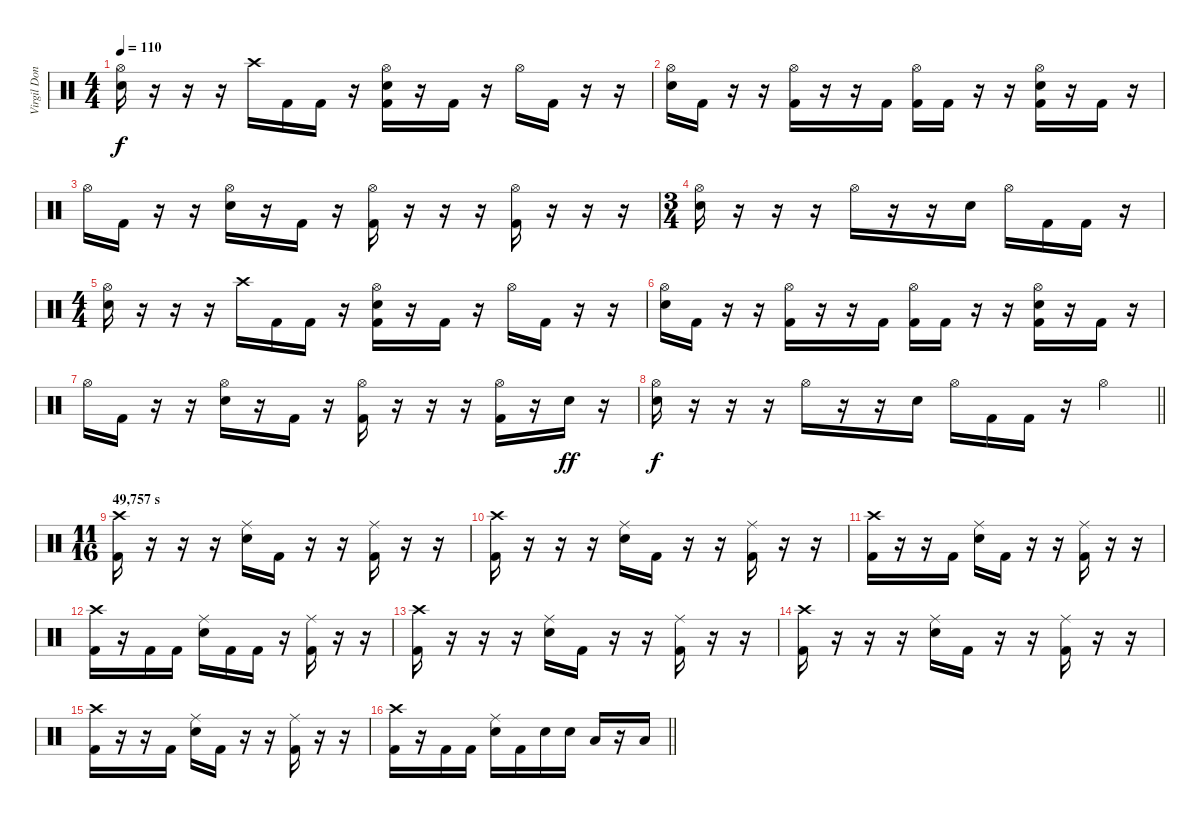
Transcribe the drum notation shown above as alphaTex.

\track ("Virgil Donati" "Virgil Don") {instrument percussion}
\staff {score}
\articulation defaults
\ts (4 4)
\tempo 110
\clef neutral
\ks c
("Hi-Hat (open)" "Electric Snare (hit)").16{dy f} r.16 r.16 r.16 "Crash high (hit)".16 "Kick (hit) 2".16 "Kick (hit) 2".16 r.16 ("Hi-Hat (open)" "Electric Snare (hit)" "Kick (hit) 2").16 r.16 "Kick (hit) 2".16 r.16 "Hi-Hat (open)".16 "Kick (hit) 2".16 r.16 r.16 |
("Hi-Hat (open)" "Electric Snare (hit)").16 "Kick (hit) 2".16 r.16 r.16 ("Hi-Hat (open)" "Kick (hit) 2").16 r.16 r.16 "Kick (hit) 2".16 ("Hi-Hat (open)" "Kick (hit) 2").16 "Kick (hit) 2".16 r.16 r.16 ("Hi-Hat (open)" "Electric Snare (hit)" "Kick (hit) 2").16 r.16 "Kick (hit) 2".16 r.16 |
"Hi-Hat (open)".16 "Kick (hit) 2".16 r.16 r.16 ("Hi-Hat (open)" "Electric Snare (hit)").16 r.16 "Kick (hit) 2".16 r.16 ("Hi-Hat (open)" "Kick (hit) 2").16 r.16 r.16 r.16 ("Hi-Hat (open)" "Kick (hit) 2").16 r.16 r.16 r.16 |
\ts (3 4)
("Hi-Hat (open)" "Electric Snare (hit)").16 r.16 r.16 r.16 "Hi-Hat (open)".16 r.16 r.16 "Electric Snare (hit)".16 "Hi-Hat (open)".16 "Kick (hit) 2".16 "Kick (hit) 2".16 r.16 |
\ts (4 4)
("Hi-Hat (open)" "Electric Snare (hit)").16 r.16 r.16 r.16 "Crash high (hit)".16 "Kick (hit) 2".16 "Kick (hit) 2".16 r.16 ("Hi-Hat (open)" "Electric Snare (hit)" "Kick (hit) 2").16 r.16 "Kick (hit) 2".16 r.16 "Hi-Hat (open)".16 "Kick (hit) 2".16 r.16 r.16 |
("Hi-Hat (open)" "Electric Snare (hit)").16 "Kick (hit) 2".16 r.16 r.16 ("Hi-Hat (open)" "Kick (hit) 2").16 r.16 r.16 "Kick (hit) 2".16 ("Hi-Hat (open)" "Kick (hit) 2").16 "Kick (hit) 2".16 r.16 r.16 ("Hi-Hat (open)" "Electric Snare (hit)" "Kick (hit) 2").16 r.16 "Kick (hit) 2".16 r.16 |
"Hi-Hat (open)".16 "Kick (hit) 2".16 r.16 r.16 ("Hi-Hat (open)" "Electric Snare (hit)").16 r.16 "Kick (hit) 2".16 r.16 ("Hi-Hat (open)" "Kick (hit) 2").16 r.16 r.16 r.16 ("Hi-Hat (open)" "Kick (hit) 2").16 r.16 "Electric Snare (hit)".16{dy ff} r.16 |
\barLineRight lightlight
("Hi-Hat (open)" "Electric Snare (hit)").16{dy f} r.16 r.16 r.16 "Hi-Hat (open)".16 r.16 r.16 "Electric Snare (hit)".16 "Hi-Hat (open)".16 "Kick (hit) 2".16 "Kick (hit) 2".16 r.16 "Hi-Hat (open)".4 |
\ts (11 16)
\section ("" "49,757 s")
("Crash high (hit)" "Kick (hit) 2").16 r.16 r.16 r.16 ("Ride (middle)" "Electric Snare (hit)").16 "Kick (hit) 2".16 r.16 r.16 ("Ride (middle)" "Kick (hit) 2").16 r.16 r.16 |
("Crash high (hit)" "Kick (hit) 2").16 r.16 r.16 r.16 ("Ride (middle)" "Electric Snare (hit)").16 "Kick (hit) 2".16 r.16 r.16 ("Ride (middle)" "Kick (hit) 2").16 r.16 r.16 |
("Crash high (hit)" "Kick (hit) 2").16 r.16 r.16 "Kick (hit) 2".16 ("Ride (middle)" "Electric Snare (hit)").16 "Kick (hit) 2".16 r.16 r.16 ("Ride (middle)" "Kick (hit) 2").16 r.16 r.16 |
("Crash high (hit)" "Kick (hit) 2").16 r.16 "Kick (hit) 2".16 "Kick (hit) 2".16 ("Ride (middle)" "Electric Snare (hit)").16 "Kick (hit) 2".16 "Kick (hit) 2".16 r.16 ("Ride (middle)" "Kick (hit) 2").16 r.16 r.16 |
("Crash high (hit)" "Kick (hit) 2").16 r.16 r.16 r.16 ("Ride (middle)" "Electric Snare (hit)").16 "Kick (hit) 2".16 r.16 r.16 ("Ride (middle)" "Kick (hit) 2").16 r.16 r.16 |
("Crash high (hit)" "Kick (hit) 2").16 r.16 r.16 r.16 ("Ride (middle)" "Electric Snare (hit)").16 "Kick (hit) 2".16 r.16 r.16 ("Ride (middle)" "Kick (hit) 2").16 r.16 r.16 |
("Crash high (hit)" "Kick (hit) 2").16 r.16 r.16 "Kick (hit) 2".16 ("Ride (middle)" "Electric Snare (hit)").16 "Kick (hit) 2".16 r.16 r.16 ("Ride (middle)" "Kick (hit) 2").16 r.16 r.16 |
\barLineRight lightlight
("Crash high (hit)" "Kick (hit) 2").16 r.16 "Kick (hit) 2".16 "Kick (hit) 2".16 ("Ride (middle)" "Electric Snare (hit)").16 "Kick (hit) 2".16 "Electric Snare (hit)".16 "Electric Snare (hit)".16 "Low Tom (hit)".16 r.16 "Low Tom (hit)".16
